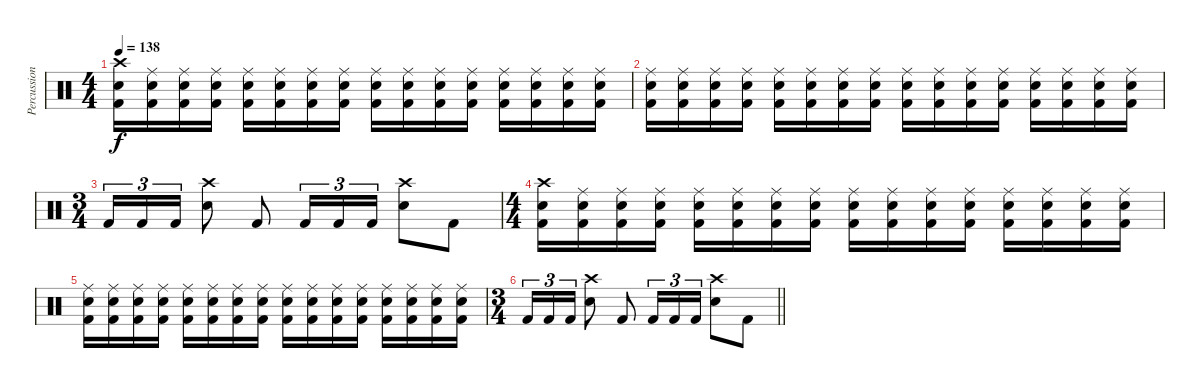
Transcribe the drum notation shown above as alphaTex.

\track ("Percussion" "Percussion") {instrument percussion}
\staff {score}
\articulation defaults
\ts (4 4)
\tempo 138
\clef neutral
\ks c
("Kick (hit) 2" "Electric Snare (hit)" "Crash high (hit)").16{dy f} ("Kick (hit) 2" "Electric Snare (hit)" "Ride (middle)").16 ("Kick (hit) 2" "Electric Snare (hit)" "Ride (middle)").16 ("Kick (hit) 2" "Electric Snare (hit)" "Ride (middle)").16 ("Kick (hit) 2" "Electric Snare (hit)" "Ride (middle)").16 ("Kick (hit) 2" "Electric Snare (hit)" "Ride (middle)").16 ("Kick (hit) 2" "Electric Snare (hit)" "Ride (middle)").16 ("Kick (hit) 2" "Electric Snare (hit)" "Ride (middle)").16 ("Kick (hit) 2" "Electric Snare (hit)" "Ride (middle)").16 ("Kick (hit) 2" "Electric Snare (hit)" "Ride (middle)").16 ("Kick (hit) 2" "Electric Snare (hit)" "Ride (middle)").16 ("Kick (hit) 2" "Electric Snare (hit)" "Ride (middle)").16 ("Kick (hit) 2" "Electric Snare (hit)" "Ride (middle)").16 ("Kick (hit) 2" "Electric Snare (hit)" "Ride (middle)").16 ("Kick (hit) 2" "Electric Snare (hit)" "Ride (middle)").16 ("Kick (hit) 2" "Electric Snare (hit)" "Ride (middle)").16 |
("Kick (hit) 2" "Electric Snare (hit)" "Ride (middle)").16 ("Kick (hit) 2" "Electric Snare (hit)" "Ride (middle)").16 ("Kick (hit) 2" "Electric Snare (hit)" "Ride (middle)").16 ("Kick (hit) 2" "Electric Snare (hit)" "Ride (middle)").16 ("Kick (hit) 2" "Electric Snare (hit)" "Ride (middle)").16 ("Kick (hit) 2" "Electric Snare (hit)" "Ride (middle)").16 ("Kick (hit) 2" "Electric Snare (hit)" "Ride (middle)").16 ("Kick (hit) 2" "Electric Snare (hit)" "Ride (middle)").16 ("Kick (hit) 2" "Electric Snare (hit)" "Ride (middle)").16 ("Kick (hit) 2" "Electric Snare (hit)" "Ride (middle)").16 ("Kick (hit) 2" "Electric Snare (hit)" "Ride (middle)").16 ("Kick (hit) 2" "Electric Snare (hit)" "Ride (middle)").16 ("Kick (hit) 2" "Electric Snare (hit)" "Ride (middle)").16 ("Kick (hit) 2" "Electric Snare (hit)" "Ride (middle)").16 ("Kick (hit) 2" "Electric Snare (hit)" "Ride (middle)").16 ("Kick (hit) 2" "Electric Snare (hit)" "Ride (middle)").16 |
\ts (3 4)
"Kick (hit) 2".16{tu (3 2)} "Kick (hit) 2".16{tu (3 2)} "Kick (hit) 2".16{tu (3 2)} ("Electric Snare (hit)" "Crash high (hit)").8 "Kick (hit) 2".8 "Kick (hit) 2".16{tu (3 2)} "Kick (hit) 2".16{tu (3 2)} "Kick (hit) 2".16{tu (3 2)} ("Electric Snare (hit)" "Crash high (hit)").8 "Kick (hit) 2".8 |
\ts (4 4)
("Kick (hit) 2" "Electric Snare (hit)" "Crash high (hit)").16 ("Kick (hit) 2" "Electric Snare (hit)" "Ride (middle)").16 ("Kick (hit) 2" "Electric Snare (hit)" "Ride (middle)").16 ("Kick (hit) 2" "Electric Snare (hit)" "Ride (middle)").16 ("Kick (hit) 2" "Electric Snare (hit)" "Ride (middle)").16 ("Kick (hit) 2" "Electric Snare (hit)" "Ride (middle)").16 ("Kick (hit) 2" "Electric Snare (hit)" "Ride (middle)").16 ("Kick (hit) 2" "Electric Snare (hit)" "Ride (middle)").16 ("Kick (hit) 2" "Electric Snare (hit)" "Ride (middle)").16 ("Kick (hit) 2" "Electric Snare (hit)" "Ride (middle)").16 ("Kick (hit) 2" "Electric Snare (hit)" "Ride (middle)").16 ("Kick (hit) 2" "Electric Snare (hit)" "Ride (middle)").16 ("Kick (hit) 2" "Electric Snare (hit)" "Ride (middle)").16 ("Kick (hit) 2" "Electric Snare (hit)" "Ride (middle)").16 ("Kick (hit) 2" "Electric Snare (hit)" "Ride (middle)").16 ("Kick (hit) 2" "Electric Snare (hit)" "Ride (middle)").16 |
("Kick (hit) 2" "Electric Snare (hit)" "Ride (middle)").16 ("Kick (hit) 2" "Electric Snare (hit)" "Ride (middle)").16 ("Kick (hit) 2" "Electric Snare (hit)" "Ride (middle)").16 ("Kick (hit) 2" "Electric Snare (hit)" "Ride (middle)").16 ("Kick (hit) 2" "Electric Snare (hit)" "Ride (middle)").16 ("Kick (hit) 2" "Electric Snare (hit)" "Ride (middle)").16 ("Kick (hit) 2" "Electric Snare (hit)" "Ride (middle)").16 ("Kick (hit) 2" "Electric Snare (hit)" "Ride (middle)").16 ("Kick (hit) 2" "Electric Snare (hit)" "Ride (middle)").16 ("Kick (hit) 2" "Electric Snare (hit)" "Ride (middle)").16 ("Kick (hit) 2" "Electric Snare (hit)" "Ride (middle)").16 ("Kick (hit) 2" "Electric Snare (hit)" "Ride (middle)").16 ("Kick (hit) 2" "Electric Snare (hit)" "Ride (middle)").16 ("Kick (hit) 2" "Electric Snare (hit)" "Ride (middle)").16 ("Kick (hit) 2" "Electric Snare (hit)" "Ride (middle)").16 ("Kick (hit) 2" "Electric Snare (hit)" "Ride (middle)").16 |
\ts (3 4)
\barLineRight lightlight "Kick (hit) 2".16{tu (3 2)} "Kick (hit) 2".16{tu (3 2)} "Kick (hit) 2".16{tu (3 2)}
("Electric Snare (hit)" "Crash high (hit)").8 "Kick (hit) 2".8 "Kick (hit) 2".16{tu (3 2)} "Kick (hit) 2".16{tu (3 2)} "Kick (hit) 2".16{tu (3 2)} ("Electric Snare (hit)" "Crash high (hit)").8 "Kick (hit) 2".8
